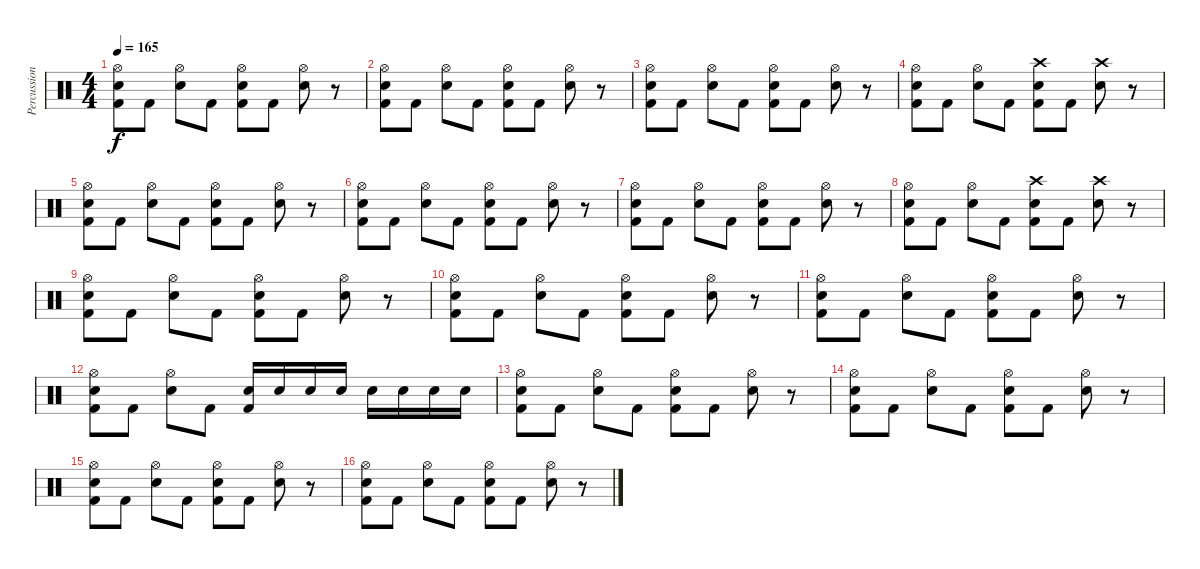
\track ("Percussion" "Percussion") {instrument percussion}
\staff {score}
\articulation defaults
\ts (4 4)
\tempo 165
\clef neutral
\ks c
("Kick (hit) 2" "Electric Snare (hit)" "Hi-Hat (open)").8{dy f} "Kick (hit) 2".8 ("Electric Snare (hit)" "Hi-Hat (open)").8 "Kick (hit) 2".8 ("Kick (hit) 2" "Electric Snare (hit)" "Hi-Hat (open)").8 "Kick (hit) 2".8 ("Electric Snare (hit)" "Hi-Hat (open)").8 r.8 |
("Kick (hit) 2" "Electric Snare (hit)" "Hi-Hat (open)").8 "Kick (hit) 2".8 ("Electric Snare (hit)" "Hi-Hat (open)").8 "Kick (hit) 2".8 ("Kick (hit) 2" "Electric Snare (hit)" "Hi-Hat (open)").8 "Kick (hit) 2".8 ("Electric Snare (hit)" "Hi-Hat (open)").8 r.8 |
("Kick (hit) 2" "Electric Snare (hit)" "Hi-Hat (open)").8 "Kick (hit) 2".8 ("Electric Snare (hit)" "Hi-Hat (open)").8 "Kick (hit) 2".8 ("Kick (hit) 2" "Electric Snare (hit)" "Hi-Hat (open)").8 "Kick (hit) 2".8 ("Electric Snare (hit)" "Hi-Hat (open)").8 r.8 |
("Kick (hit) 2" "Electric Snare (hit)" "Hi-Hat (open)").8 "Kick (hit) 2".8 ("Electric Snare (hit)" "Hi-Hat (open)").8 "Kick (hit) 2".8 ("Kick (hit) 2" "Electric Snare (hit)" "Crash high (hit)").8 "Kick (hit) 2".8 ("Electric Snare (hit)" "Crash high (hit)").8 r.8 |
("Kick (hit) 2" "Electric Snare (hit)" "Hi-Hat (open)").8 "Kick (hit) 2".8 ("Electric Snare (hit)" "Hi-Hat (open)").8 "Kick (hit) 2".8 ("Kick (hit) 2" "Electric Snare (hit)" "Hi-Hat (open)").8 "Kick (hit) 2".8 ("Electric Snare (hit)" "Hi-Hat (open)").8 r.8 |
("Kick (hit) 2" "Electric Snare (hit)" "Hi-Hat (open)").8 "Kick (hit) 2".8 ("Electric Snare (hit)" "Hi-Hat (open)").8 "Kick (hit) 2".8 ("Kick (hit) 2" "Electric Snare (hit)" "Hi-Hat (open)").8 "Kick (hit) 2".8 ("Electric Snare (hit)" "Hi-Hat (open)").8 r.8 |
("Kick (hit) 2" "Electric Snare (hit)" "Hi-Hat (open)").8 "Kick (hit) 2".8 ("Electric Snare (hit)" "Hi-Hat (open)").8 "Kick (hit) 2".8 ("Kick (hit) 2" "Electric Snare (hit)" "Hi-Hat (open)").8 "Kick (hit) 2".8 ("Electric Snare (hit)" "Hi-Hat (open)").8 r.8 |
("Kick (hit) 2" "Electric Snare (hit)" "Hi-Hat (open)").8 "Kick (hit) 2".8 ("Electric Snare (hit)" "Hi-Hat (open)").8 "Kick (hit) 2".8 ("Kick (hit) 2" "Electric Snare (hit)" "Crash high (hit)").8 "Kick (hit) 2".8 ("Electric Snare (hit)" "Crash high (hit)").8 r.8 |
("Kick (hit) 2" "Electric Snare (hit)" "Hi-Hat (open)").8 "Kick (hit) 2".8 ("Electric Snare (hit)" "Hi-Hat (open)").8 "Kick (hit) 2".8 ("Kick (hit) 2" "Electric Snare (hit)" "Hi-Hat (open)").8 "Kick (hit) 2".8 ("Electric Snare (hit)" "Hi-Hat (open)").8 r.8 |
("Kick (hit) 2" "Electric Snare (hit)" "Hi-Hat (open)").8 "Kick (hit) 2".8 ("Electric Snare (hit)" "Hi-Hat (open)").8 "Kick (hit) 2".8 ("Kick (hit) 2" "Electric Snare (hit)" "Hi-Hat (open)").8 "Kick (hit) 2".8 ("Electric Snare (hit)" "Hi-Hat (open)").8 r.8 |
("Kick (hit) 2" "Electric Snare (hit)" "Hi-Hat (open)").8 "Kick (hit) 2".8 ("Electric Snare (hit)" "Hi-Hat (open)").8 "Kick (hit) 2".8 ("Kick (hit) 2" "Electric Snare (hit)" "Hi-Hat (open)").8 "Kick (hit) 2".8 ("Electric Snare (hit)" "Hi-Hat (open)").8 r.8 |
("Hi-Hat (open)" "Electric Snare (hit)" "Kick (hit) 2").8 "Kick (hit) 2".8 ("Hi-Hat (open)" "Electric Snare (hit)").8 "Kick (hit) 2".8 ("Electric Snare (hit)" "Kick (hit) 2").16 "Electric Snare (hit)".16 "Electric Snare (hit)".16 "Electric Snare (hit)".16 "Electric Snare (hit)".16 "Electric Snare (hit)".16 "Electric Snare (hit)".16 "Electric Snare (hit)".16 |
("Kick (hit) 2" "Electric Snare (hit)" "Hi-Hat (open)").8 "Kick (hit) 2".8 ("Electric Snare (hit)" "Hi-Hat (open)").8 "Kick (hit) 2".8 ("Kick (hit) 2" "Electric Snare (hit)" "Hi-Hat (open)").8 "Kick (hit) 2".8 ("Electric Snare (hit)" "Hi-Hat (open)").8 r.8 |
("Kick (hit) 2" "Electric Snare (hit)" "Hi-Hat (open)").8 "Kick (hit) 2".8 ("Electric Snare (hit)" "Hi-Hat (open)").8 "Kick (hit) 2".8 ("Kick (hit) 2" "Electric Snare (hit)" "Hi-Hat (open)").8 "Kick (hit) 2".8 ("Electric Snare (hit)" "Hi-Hat (open)").8 r.8 |
("Kick (hit) 2" "Electric Snare (hit)" "Hi-Hat (open)").8 "Kick (hit) 2".8 ("Electric Snare (hit)" "Hi-Hat (open)").8 "Kick (hit) 2".8 ("Kick (hit) 2" "Electric Snare (hit)" "Hi-Hat (open)").8 "Kick (hit) 2".8 ("Electric Snare (hit)" "Hi-Hat (open)").8 r.8 |
("Kick (hit) 2" "Electric Snare (hit)" "Hi-Hat (open)").8 "Kick (hit) 2".8 ("Electric Snare (hit)" "Hi-Hat (open)").8 "Kick (hit) 2".8 ("Kick (hit) 2" "Electric Snare (hit)" "Hi-Hat (open)").8 "Kick (hit) 2".8 ("Electric Snare (hit)" "Hi-Hat (open)").8 r.8
